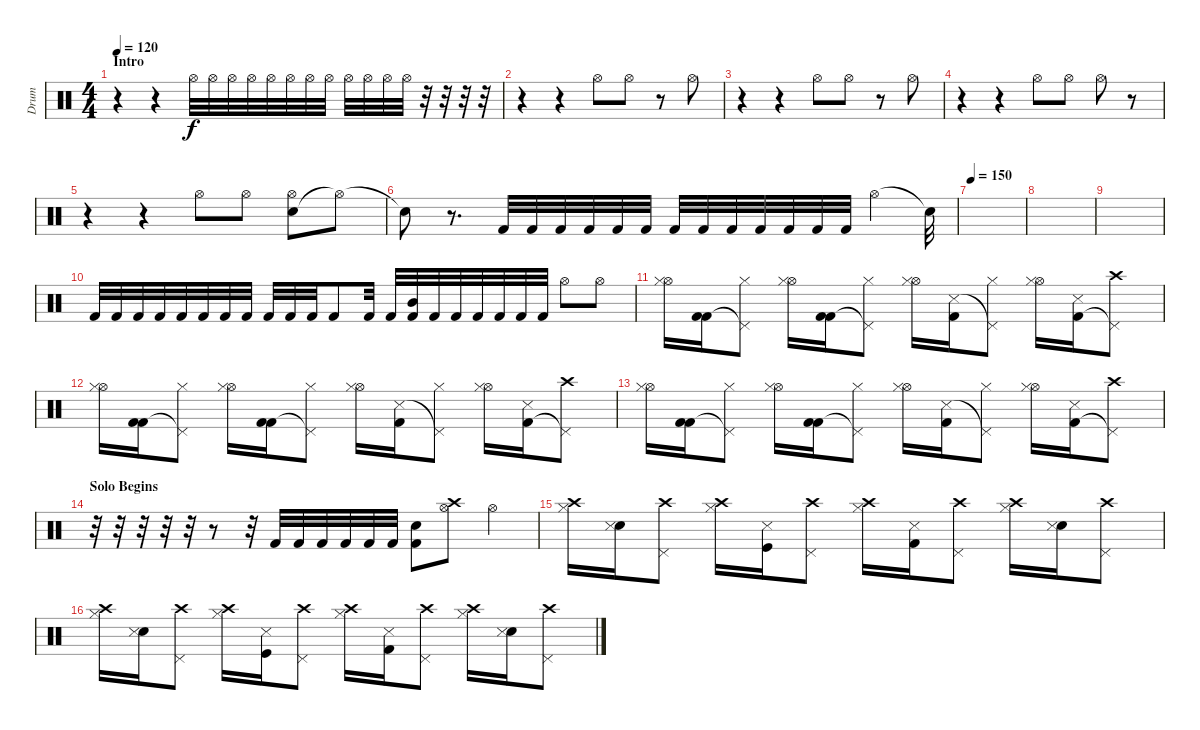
\track ("Drum" "Drum") {instrument percussion}
\staff {score}
\articulation defaults
\ts (4 4)
\section ("" "Intro")
\tempo 120
\clef neutral
\ks c
r.4{dy f} r.4 "Hi-Hat (open)".32 "Hi-Hat (open)".32 "Hi-Hat (open)".32 "Hi-Hat (open)".32 "Hi-Hat (open)".32 "Hi-Hat (open)".32 "Hi-Hat (open)".32 "Hi-Hat (open)".32 "Hi-Hat (open)".32 "Hi-Hat (open)".32 "Hi-Hat (open)".32 "Hi-Hat (open)".32 r.32 r.32 r.32 r.32 |
r.4 r.4 "Hi-Hat (open)".8 "Hi-Hat (open)".8 r.8 "Hi-Hat (open)".8 |
r.4 r.4 "Hi-Hat (open)".8 "Hi-Hat (open)".8 r.8 "Hi-Hat (open)".8 |
r.4 r.4 "Hi-Hat (open)".8 "Hi-Hat (open)".8 "Hi-Hat (open)".8 r.8 |
r.4 r.4 "Hi-Hat (open)".8 "Hi-Hat (open)".8 ("Snare (hit) 2" "Hi-Hat (open)").8 "Hi-Hat (open)"{t}.8 |
"Snare (hit)"{t}.8 r.8{d} "Kick (hit) 2".32 "Kick (hit) 2".32 "Kick (hit) 2".32 "Kick (hit) 2".32 "Kick (hit) 2".32 "Kick (hit) 2".32 "Kick (hit) 2".32 "Kick (hit) 2".32 "Kick (hit) 2".32 "Kick (hit) 2".32 "Kick (hit) 2".32 "Kick (hit) 2".32 "Kick (hit) 2".32 "Hi-Hat (open)".4 "Snare (hit)"{t}.32 |
\tempo 150
|
|
|
"Kick (hit) 2".32 "Kick (hit) 2".32 "Kick (hit) 2".32 "Kick (hit) 2".32 "Kick (hit) 2".32 "Kick (hit) 2".32 "Kick (hit) 2".32 "Kick (hit) 2".32 "Kick (hit) 2".32 "Kick (hit) 2".32 "Kick (hit) 2".32 "Kick (hit) 2".8 "Kick (hit) 2".32 "Kick (hit) 2".32 ("Kick (hit) 2" "Mid Tom (hit)").32 "Kick (hit) 2".32 "Kick (hit) 2".32 "Kick (hit) 2".32 "Kick (hit) 2".32 "Kick (hit) 2".32 "Kick (hit) 2".32 "Hi-Hat (open)".8 "Hi-Hat (open)".8 |
("Hi-Hat (open)" "Hi-Hat (closed)").16 ("Kick (hit) 2" "Kick (hit) 2").16 ("Hi-Hat (closed)" "Pedal Hi-Hat (hit)"{t}).8 ("Hi-Hat (open)" "Hi-Hat (closed)").16 ("Kick (hit) 2" "Kick (hit) 2").16 ("Hi-Hat (closed)" "Pedal Hi-Hat (hit)"{t}).8 ("Hi-Hat (open)" "Hi-Hat (closed)").16 ("Kick (hit) 2" "Snare (side stick) 3").16 ("Hi-Hat (closed)" "Pedal Hi-Hat (hit)"{t}).8 ("Hi-Hat (open)" "Hi-Hat (closed)").16 ("Snare (side stick) 3" "Kick (hit) 2").16 ("Crash high (hit)" "Pedal Hi-Hat (hit)"{t}).8 |
("Hi-Hat (open)" "Hi-Hat (closed)").16 ("Kick (hit) 2" "Kick (hit) 2").16 ("Hi-Hat (closed)" "Pedal Hi-Hat (hit)"{t}).8 ("Hi-Hat (open)" "Hi-Hat (closed)").16 ("Kick (hit) 2" "Kick (hit) 2").16 ("Hi-Hat (closed)" "Pedal Hi-Hat (hit)"{t}).8 ("Hi-Hat (open)" "Hi-Hat (closed)").16 ("Kick (hit) 2" "Snare (side stick) 3").16 ("Hi-Hat (closed)" "Pedal Hi-Hat (hit)"{t}).8 ("Hi-Hat (open)" "Hi-Hat (closed)").16 ("Snare (side stick) 3" "Kick (hit) 2").16 ("Crash high (hit)" "Pedal Hi-Hat (hit)"{t}).8 |
("Hi-Hat (open)" "Hi-Hat (closed)").16 ("Kick (hit) 2" "Kick (hit) 2").16 ("Hi-Hat (closed)" "Pedal Hi-Hat (hit)"{t}).8 ("Hi-Hat (open)" "Hi-Hat (closed)").16 ("Kick (hit) 2" "Kick (hit) 2").16 ("Hi-Hat (closed)" "Pedal Hi-Hat (hit)"{t}).8 ("Hi-Hat (open)" "Hi-Hat (closed)").16 ("Kick (hit) 2" "Snare (side stick) 3").16 ("Hi-Hat (closed)" "Pedal Hi-Hat (hit)"{t}).8 ("Hi-Hat (open)" "Hi-Hat (closed)").16 ("Snare (side stick) 3" "Kick (hit) 2").16 ("Crash high (hit)" "Pedal Hi-Hat (hit)"{t}).8 |
\section ("" "Solo Begins")
r.32 r.32 r.32 r.32 r.32 r.8 r.32 "Kick (hit) 2".32 "Kick (hit) 2".32 "Kick (hit) 2".32 "Kick (hit) 2".32 "Kick (hit) 2".32 "Kick (hit) 2".32 ("Snare (hit) 2" "Kick (hit) 2").8 ("Hi-Hat (open)" "Crash high (hit)").8 "Hi-Hat (open)".4 |
("Crash high (hit)" "Hi-Hat (closed)").16 ("Snare (hit) 2" "Snare (side stick) 3").16 ("Crash high (hit)" "Pedal Hi-Hat (hit)").8 ("Crash high (hit)" "Hi-Hat (closed)").16 ("Kick (hit)" "Snare (side stick) 3").16 ("Crash high (hit)" "Pedal Hi-Hat (hit)").8 ("Crash high (hit)" "Hi-Hat (closed)").16 ("Kick (hit) 2" "Snare (side stick) 3").16 ("Crash high (hit)" "Pedal Hi-Hat (hit)").8 ("Crash high (hit)" "Hi-Hat (closed)").16 ("Snare (hit) 2" "Snare (side stick) 3").16 ("Crash high (hit)" "Pedal Hi-Hat (hit)").8 |
("Crash high (hit)" "Hi-Hat (closed)").16 ("Snare (hit) 2" "Snare (side stick) 3").16 ("Crash high (hit)" "Pedal Hi-Hat (hit)").8 ("Crash high (hit)" "Hi-Hat (closed)").16 ("Kick (hit)" "Snare (side stick) 3").16 ("Crash high (hit)" "Pedal Hi-Hat (hit)").8 ("Crash high (hit)" "Hi-Hat (closed)").16 ("Kick (hit) 2" "Snare (side stick) 3").16 ("Crash high (hit)" "Pedal Hi-Hat (hit)").8 ("Crash high (hit)" "Hi-Hat (closed)").16 ("Snare (hit) 2" "Snare (side stick) 3").16 ("Crash high (hit)" "Pedal Hi-Hat (hit)").8
